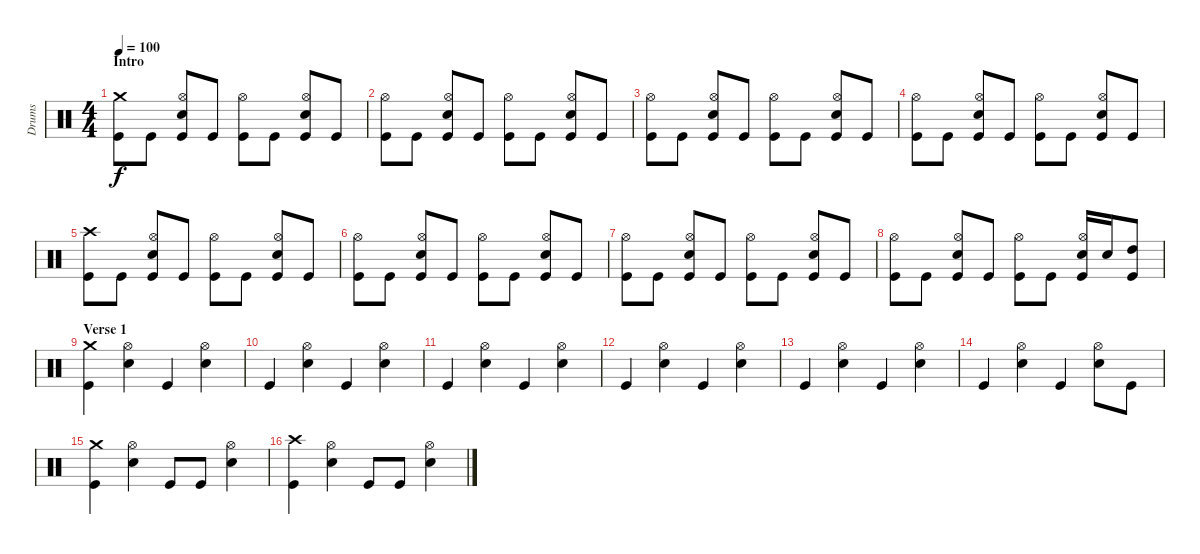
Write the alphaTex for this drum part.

\track ("Drums" "Drums") {instrument percussion}
\staff {score}
\articulation defaults
\ts (4 4)
\section ("" "Intro")
\tempo 100
\clef neutral
\ks c
("Crash medium (hit)" "Kick (hit)").8{dy f} "Kick (hit)".8 ("Hi-Hat (open)" "Electric Snare (hit)" "Kick (hit)").8 "Kick (hit)".8 ("Hi-Hat (open)" "Kick (hit)").8 "Kick (hit)".8 ("Hi-Hat (open)" "Electric Snare (hit)" "Kick (hit)").8 "Kick (hit)".8 |
("Hi-Hat (open)" "Kick (hit)").8 "Kick (hit)".8 ("Hi-Hat (open)" "Electric Snare (hit)" "Kick (hit)").8 "Kick (hit)".8 ("Hi-Hat (open)" "Kick (hit)").8 "Kick (hit)".8 ("Hi-Hat (open)" "Electric Snare (hit)" "Kick (hit)").8 "Kick (hit)".8 |
("Hi-Hat (open)" "Kick (hit)").8 "Kick (hit)".8 ("Hi-Hat (open)" "Electric Snare (hit)" "Kick (hit)").8 "Kick (hit)".8 ("Hi-Hat (open)" "Kick (hit)").8 "Kick (hit)".8 ("Hi-Hat (open)" "Electric Snare (hit)" "Kick (hit)").8 "Kick (hit)".8 |
("Hi-Hat (open)" "Kick (hit)").8 "Kick (hit)".8 ("Hi-Hat (open)" "Electric Snare (hit)" "Kick (hit)").8 "Kick (hit)".8 ("Hi-Hat (open)" "Kick (hit)").8 "Kick (hit)".8 ("Hi-Hat (open)" "Electric Snare (hit)" "Kick (hit)").8 "Kick (hit)".8 |
("Crash high (hit)" "Kick (hit)").8 "Kick (hit)".8 ("Hi-Hat (open)" "Electric Snare (hit)" "Kick (hit)").8 "Kick (hit)".8 ("Hi-Hat (open)" "Kick (hit)").8 "Kick (hit)".8 ("Hi-Hat (open)" "Electric Snare (hit)" "Kick (hit)").8 "Kick (hit)".8 |
("Hi-Hat (open)" "Kick (hit)").8 "Kick (hit)".8 ("Hi-Hat (open)" "Electric Snare (hit)" "Kick (hit)").8 "Kick (hit)".8 ("Hi-Hat (open)" "Kick (hit)").8 "Kick (hit)".8 ("Hi-Hat (open)" "Electric Snare (hit)" "Kick (hit)").8 "Kick (hit)".8 |
("Hi-Hat (open)" "Kick (hit)").8 "Kick (hit)".8 ("Hi-Hat (open)" "Electric Snare (hit)" "Kick (hit)").8 "Kick (hit)".8 ("Hi-Hat (open)" "Kick (hit)").8 "Kick (hit)".8 ("Hi-Hat (open)" "Electric Snare (hit)" "Kick (hit)").8 "Kick (hit)".8 |
("Hi-Hat (open)" "Kick (hit)").8 "Kick (hit)".8 ("Hi-Hat (open)" "Electric Snare (hit)" "Kick (hit)").8 "Kick (hit)".8 ("Hi-Hat (open)" "Kick (hit)").8 "Kick (hit)".8 ("Hi-Hat (open)" "Electric Snare (hit)" "Kick (hit)").16 "Electric Snare (hit)".16 ("High Tom (hit)" "Kick (hit)").8 |
\section ("" "Verse 1")
("Crash medium (hit)" "Kick (hit)").4 ("Hi-Hat (open)" "Electric Snare (hit)").4 "Kick (hit)".4 ("Hi-Hat (open)" "Electric Snare (hit)").4 |
"Kick (hit)".4 ("Hi-Hat (open)" "Electric Snare (hit)").4 "Kick (hit)".4 ("Hi-Hat (open)" "Electric Snare (hit)").4 |
"Kick (hit)".4 ("Hi-Hat (open)" "Electric Snare (hit)").4 "Kick (hit)".4 ("Hi-Hat (open)" "Electric Snare (hit)").4 |
"Kick (hit)".4 ("Hi-Hat (open)" "Electric Snare (hit)").4 "Kick (hit)".4 ("Hi-Hat (open)" "Electric Snare (hit)").4 |
"Kick (hit)".4 ("Hi-Hat (open)" "Electric Snare (hit)").4 "Kick (hit)".4 ("Hi-Hat (open)" "Electric Snare (hit)").4 |
"Kick (hit)".4 ("Hi-Hat (open)" "Electric Snare (hit)").4 "Kick (hit)".4 ("Hi-Hat (open)" "Electric Snare (hit)").8 "Kick (hit)".8 |
("Crash medium (hit)" "Kick (hit)").4 ("Hi-Hat (open)" "Electric Snare (hit)").4 "Kick (hit)".8 "Kick (hit)".8 ("Hi-Hat (open)" "Electric Snare (hit)").4 |
("Crash high (hit)" "Kick (hit)").4 ("Hi-Hat (open)" "Electric Snare (hit)").4 "Kick (hit)".8 "Kick (hit)".8 ("Hi-Hat (open)" "Electric Snare (hit)").4
